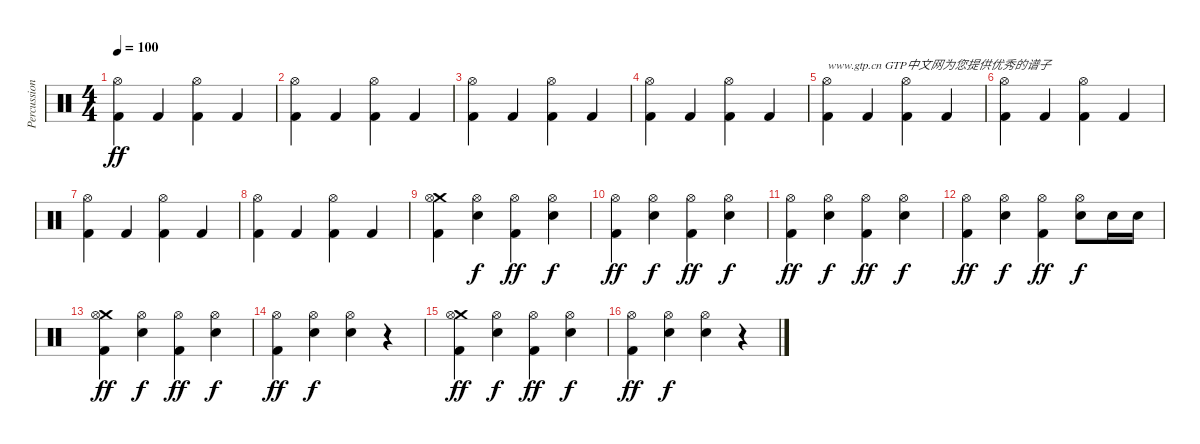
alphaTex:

\track ("Percussion" "Percussion") {instrument percussion}
\staff {score}
\articulation defaults
\ts (4 4)
\tempo 100
\clef neutral
\ks c
("Hi-Hat (open)" "Kick (hit) 2").4{dy ff} "Kick (hit) 2".4 ("Hi-Hat (open)" "Kick (hit) 2").4 "Kick (hit) 2".4 |
("Hi-Hat (open)" "Kick (hit) 2").4 "Kick (hit) 2".4 ("Hi-Hat (open)" "Kick (hit) 2").4 "Kick (hit) 2".4 |
("Hi-Hat (open)" "Kick (hit) 2").4 "Kick (hit) 2".4 ("Hi-Hat (open)" "Kick (hit) 2").4 "Kick (hit) 2".4 |
("Hi-Hat (open)" "Kick (hit) 2").4 "Kick (hit) 2".4 ("Hi-Hat (open)" "Kick (hit) 2").4 "Kick (hit) 2".4 |
("Hi-Hat (open)" "Kick (hit) 2").4{txt "www.gtp.cn GTP中文网为您提供优秀的谱子"} "Kick (hit) 2".4 ("Hi-Hat (open)" "Kick (hit) 2").4 "Kick (hit) 2".4 |
("Hi-Hat (open)" "Kick (hit) 2").4 "Kick (hit) 2".4 ("Hi-Hat (open)" "Kick (hit) 2").4 "Kick (hit) 2".4 |
("Hi-Hat (open)" "Kick (hit) 2").4 "Kick (hit) 2".4 ("Hi-Hat (open)" "Kick (hit) 2").4 "Kick (hit) 2".4 |
("Hi-Hat (open)" "Kick (hit) 2").4 "Kick (hit) 2".4 ("Hi-Hat (open)" "Kick (hit) 2").4 "Kick (hit) 2".4 |
("Crash medium (hit)" "Hi-Hat (open)" "Kick (hit) 2").4 ("Hi-Hat (open)" "Electric Snare (hit)").4{dy f} ("Hi-Hat (open)" "Kick (hit) 2").4{dy ff} ("Hi-Hat (open)" "Electric Snare (hit)").4{dy f} |
("Hi-Hat (open)" "Kick (hit) 2").4{dy ff} ("Hi-Hat (open)" "Electric Snare (hit)").4{dy f} ("Hi-Hat (open)" "Kick (hit) 2").4{dy ff} ("Hi-Hat (open)" "Electric Snare (hit)").4{dy f} |
("Hi-Hat (open)" "Kick (hit) 2").4{dy ff} ("Hi-Hat (open)" "Electric Snare (hit)").4{dy f} ("Hi-Hat (open)" "Kick (hit) 2").4{dy ff} ("Hi-Hat (open)" "Electric Snare (hit)").4{dy f} |
("Hi-Hat (open)" "Kick (hit) 2").4{dy ff} ("Hi-Hat (open)" "Electric Snare (hit)").4{dy f} ("Hi-Hat (open)" "Kick (hit) 2").4{dy ff} ("Hi-Hat (open)" "Electric Snare (hit)").8{dy f} "Electric Snare (hit)".16 "Electric Snare (hit)".16 |
("Crash medium (hit)" "Hi-Hat (open)" "Kick (hit) 2").4{dy ff} ("Hi-Hat (open)" "Electric Snare (hit)").4{dy f} ("Hi-Hat (open)" "Kick (hit) 2").4{dy ff} ("Hi-Hat (open)" "Electric Snare (hit)").4{dy f} |
("Hi-Hat (open)" "Kick (hit) 2").4{dy ff} ("Hi-Hat (open)" "Electric Snare (hit)").4{dy f} ("Hi-Hat (open)" "Electric Snare (hit)").4 r.4 |
("Crash medium (hit)" "Hi-Hat (open)" "Kick (hit) 2").4{dy ff} ("Hi-Hat (open)" "Electric Snare (hit)").4{dy f} ("Hi-Hat (open)" "Kick (hit) 2").4{dy ff} ("Hi-Hat (open)" "Electric Snare (hit)").4{dy f} |
("Hi-Hat (open)" "Kick (hit) 2").4{dy ff} ("Hi-Hat (open)" "Electric Snare (hit)").4{dy f} ("Hi-Hat (open)" "Electric Snare (hit)").4 r.4
